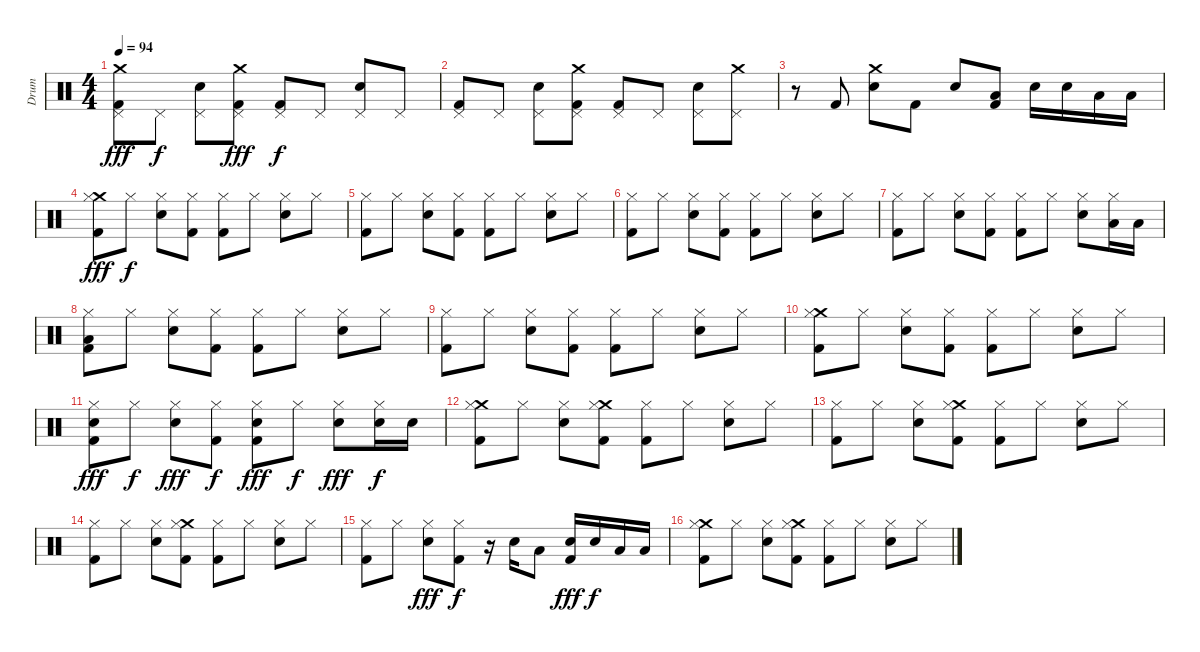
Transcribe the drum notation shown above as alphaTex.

\track ("Drum" "Drum") {instrument percussion}
\staff {score}
\articulation defaults
\ts (4 4)
\tempo 94
\clef neutral
\ks c
("Crash medium (hit)" "Pedal Hi-Hat (hit)" "Kick (hit) 2").8{dy fff} "Pedal Hi-Hat (hit)".8{dy f} ("Pedal Hi-Hat (hit)" "Snare (hit) 2").8 ("Crash medium (hit)" "Pedal Hi-Hat (hit)" "Kick (hit) 2").8{dy fff} ("Pedal Hi-Hat (hit)" "Kick (hit) 2").8{dy f} "Pedal Hi-Hat (hit)".8 ("Pedal Hi-Hat (hit)" "Snare (hit) 2").8 "Pedal Hi-Hat (hit)".8 |
("Pedal Hi-Hat (hit)" "Kick (hit) 2").8 "Pedal Hi-Hat (hit)".8 ("Pedal Hi-Hat (hit)" "Snare (hit) 2").8 ("Crash medium (hit)" "Pedal Hi-Hat (hit)" "Kick (hit) 2").8 ("Pedal Hi-Hat (hit)" "Kick (hit) 2").8 "Pedal Hi-Hat (hit)".8 ("Pedal Hi-Hat (hit)" "Snare (hit) 2").8 ("Crash medium (hit)" "Pedal Hi-Hat (hit)").8 |
r.8 "Kick (hit) 2".8 ("Crash medium (hit)" "Snare (hit) 2").8 "Kick (hit) 2".8 "Snare (hit) 2".8 ("Low Floor Tom (hit)" "Kick (hit) 2").8 "Snare (hit) 2".16 "Snare (hit) 2".16 "Low Floor Tom (hit)".16 "Low Floor Tom (hit)".16 |
("Crash medium (hit)" "Hi-Hat (closed)" "Kick (hit) 2").8{dy fff} "Hi-Hat (closed)".8{dy f} ("Hi-Hat (closed)" "Snare (hit) 2").8 ("Hi-Hat (closed)" "Kick (hit) 2").8 ("Hi-Hat (closed)" "Kick (hit) 2").8 "Hi-Hat (closed)".8 ("Hi-Hat (closed)" "Snare (hit) 2").8 "Hi-Hat (closed)".8 |
("Hi-Hat (closed)" "Kick (hit) 2").8 "Hi-Hat (closed)".8 ("Hi-Hat (closed)" "Snare (hit) 2").8 ("Hi-Hat (closed)" "Kick (hit) 2").8 ("Hi-Hat (closed)" "Kick (hit) 2").8 "Hi-Hat (closed)".8 ("Hi-Hat (closed)" "Snare (hit) 2").8 "Hi-Hat (closed)".8 |
("Hi-Hat (closed)" "Kick (hit) 2").8 "Hi-Hat (closed)".8 ("Hi-Hat (closed)" "Snare (hit) 2").8 ("Hi-Hat (closed)" "Kick (hit) 2").8 ("Hi-Hat (closed)" "Kick (hit) 2").8 "Hi-Hat (closed)".8 ("Hi-Hat (closed)" "Snare (hit) 2").8 "Hi-Hat (closed)".8 |
("Hi-Hat (closed)" "Kick (hit) 2").8 "Hi-Hat (closed)".8 ("Hi-Hat (closed)" "Snare (hit) 2").8 ("Hi-Hat (closed)" "Kick (hit) 2").8 ("Hi-Hat (closed)" "Kick (hit) 2").8 "Hi-Hat (closed)".8 ("Hi-Hat (closed)" "Snare (hit) 2").8 ("Hi-Hat (closed)" "Low Floor Tom (hit)").16 "Low Floor Tom (hit)".16 |
("Hi-Hat (closed)" "Low Floor Tom (hit)" "Kick (hit) 2").8 "Hi-Hat (closed)".8 ("Hi-Hat (closed)" "Snare (hit) 2").8 ("Hi-Hat (closed)" "Kick (hit) 2").8 ("Hi-Hat (closed)" "Kick (hit) 2").8 "Hi-Hat (closed)".8 ("Hi-Hat (closed)" "Snare (hit) 2").8 "Hi-Hat (closed)".8 |
("Hi-Hat (closed)" "Kick (hit) 2").8 "Hi-Hat (closed)".8 ("Hi-Hat (closed)" "Snare (hit) 2").8 ("Hi-Hat (closed)" "Kick (hit) 2").8 ("Hi-Hat (closed)" "Kick (hit) 2").8 "Hi-Hat (closed)".8 ("Hi-Hat (closed)" "Snare (hit) 2").8 "Hi-Hat (closed)".8 |
("Crash medium (hit)" "Hi-Hat (closed)" "Kick (hit) 2").8 "Hi-Hat (closed)".8 ("Hi-Hat (closed)" "Snare (hit) 2").8 ("Hi-Hat (closed)" "Kick (hit) 2").8 ("Hi-Hat (closed)" "Kick (hit) 2").8 "Hi-Hat (closed)".8 ("Hi-Hat (closed)" "Snare (hit) 2").8 "Hi-Hat (closed)".8 |
("Hi-Hat (closed)" "Snare (hit) 2" "Kick (hit) 2").8{dy fff} "Hi-Hat (closed)".8{dy f} ("Hi-Hat (closed)" "Snare (hit) 2").8{dy fff} ("Hi-Hat (closed)" "Kick (hit) 2").8{dy f} ("Hi-Hat (closed)" "Snare (hit) 2" "Kick (hit) 2").8{dy fff} "Hi-Hat (closed)".8{dy f} ("Hi-Hat (closed)" "Snare (hit) 2").8{dy fff} ("Hi-Hat (closed)" "Snare (hit) 2").16{dy f} "Snare (hit) 2".16 |
("Crash medium (hit)" "Hi-Hat (closed)" "Kick (hit) 2").8 "Hi-Hat (closed)".8 ("Hi-Hat (closed)" "Snare (hit) 2").8 ("Crash medium (hit)" "Hi-Hat (closed)" "Kick (hit) 2").8 ("Hi-Hat (closed)" "Kick (hit) 2").8 "Hi-Hat (closed)".8 ("Hi-Hat (closed)" "Snare (hit) 2").8 "Hi-Hat (closed)".8 |
("Hi-Hat (closed)" "Kick (hit) 2").8 "Hi-Hat (closed)".8 ("Hi-Hat (closed)" "Snare (hit) 2").8 ("Crash medium (hit)" "Hi-Hat (closed)" "Kick (hit) 2").8 ("Hi-Hat (closed)" "Kick (hit) 2").8 "Hi-Hat (closed)".8 ("Hi-Hat (closed)" "Snare (hit) 2").8 "Hi-Hat (closed)".8 |
("Hi-Hat (closed)" "Kick (hit) 2").8 "Hi-Hat (closed)".8 ("Hi-Hat (closed)" "Snare (hit) 2").8 ("Crash medium (hit)" "Hi-Hat (closed)" "Kick (hit) 2").8 ("Hi-Hat (closed)" "Kick (hit) 2").8 "Hi-Hat (closed)".8 ("Hi-Hat (closed)" "Snare (hit) 2").8 "Hi-Hat (closed)".8 |
("Hi-Hat (closed)" "Kick (hit) 2").8 "Hi-Hat (closed)".8 ("Hi-Hat (closed)" "Snare (hit) 2").8{dy fff} ("Hi-Hat (closed)" "Kick (hit) 2").8{dy f} r.16 "Snare (hit) 2".16 "Low Floor Tom (hit)".8 ("Snare (hit) 2" "Kick (hit) 2").16{dy fff} "Snare (hit) 2".16{dy f} "Low Floor Tom (hit)".16 "Low Floor Tom (hit)".16 |
("Crash medium (hit)" "Hi-Hat (closed)" "Kick (hit) 2").8 "Hi-Hat (closed)".8 ("Hi-Hat (closed)" "Snare (hit) 2").8 ("Crash medium (hit)" "Hi-Hat (closed)" "Kick (hit) 2").8 ("Hi-Hat (closed)" "Kick (hit) 2").8 "Hi-Hat (closed)".8 ("Hi-Hat (closed)" "Snare (hit) 2").8 "Hi-Hat (closed)".8
